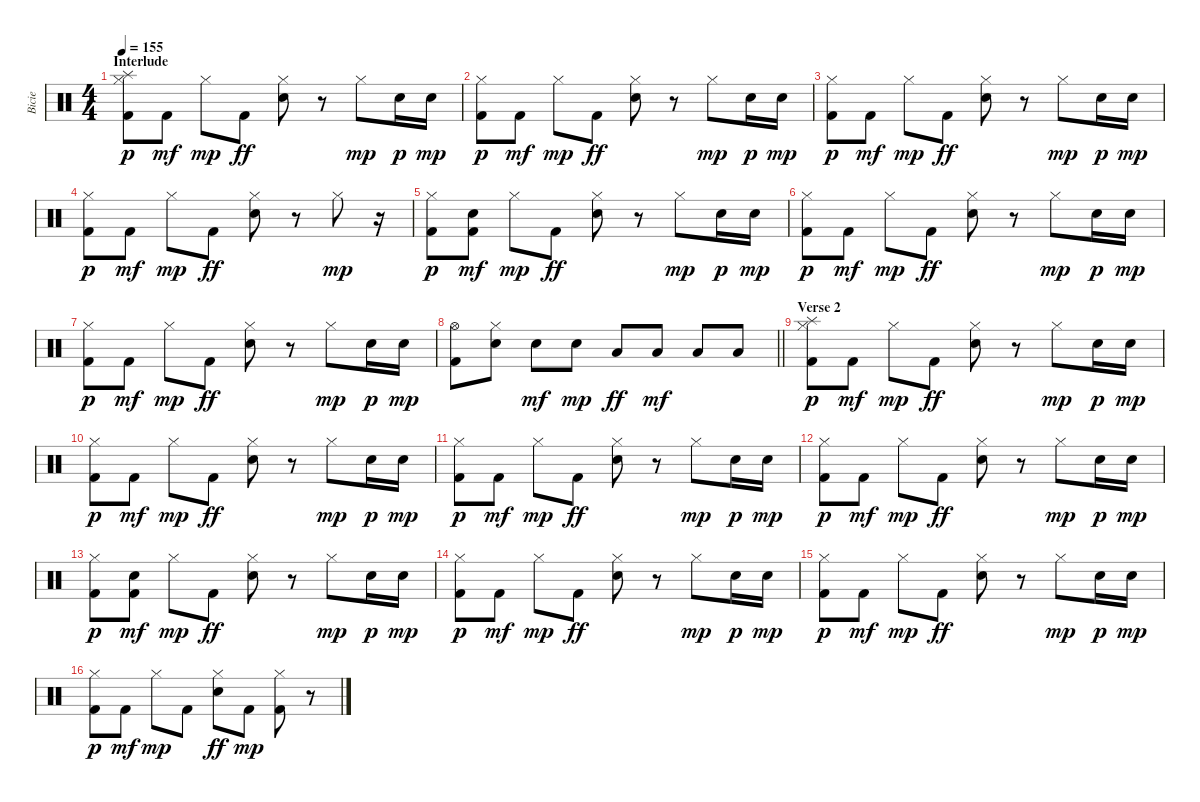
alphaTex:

\track ("Bicie" "Bicie") {instrument percussion}
\staff {score}
\articulation defaults
\ts (4 4)
\section ("" "Interlude")
\tempo 155
\clef neutral
\ks c
("Hi-Hat (closed)" "Splash (hit)" "Kick (hit) 2").8{dy p} "Kick (hit) 2".8{dy mf} "Hi-Hat (closed)".8{dy mp} "Kick (hit) 2".8{dy ff} ("Hi-Hat (closed)" "Electric Snare (hit)").8 r.8 "Hi-Hat (closed)".8{dy mp} "Electric Snare (hit)".16{dy p} "Electric Snare (hit)".16{dy mp} |
("Hi-Hat (closed)" "Kick (hit) 2").8{dy p} "Kick (hit) 2".8{dy mf} "Hi-Hat (closed)".8{dy mp} "Kick (hit) 2".8{dy ff} ("Hi-Hat (closed)" "Electric Snare (hit)").8 r.8 "Hi-Hat (closed)".8{dy mp} "Electric Snare (hit)".16{dy p} "Electric Snare (hit)".16{dy mp} |
("Hi-Hat (closed)" "Kick (hit) 2").8{dy p} "Kick (hit) 2".8{dy mf} "Hi-Hat (closed)".8{dy mp} "Kick (hit) 2".8{dy ff} ("Hi-Hat (closed)" "Electric Snare (hit)").8 r.8 "Hi-Hat (closed)".8{dy mp} "Electric Snare (hit)".16{dy p} "Electric Snare (hit)".16{dy mp} |
("Hi-Hat (closed)" "Kick (hit) 2").8{dy p} "Kick (hit) 2".8{dy mf} "Hi-Hat (closed)".8{dy mp} "Kick (hit) 2".8{dy ff} ("Hi-Hat (closed)" "Electric Snare (hit)").8 r.8 "Hi-Hat (closed)".8{dy mp} r.16 |
("Hi-Hat (closed)" "Kick (hit) 2").8{dy p} ("Electric Snare (hit)" "Kick (hit) 2").8{dy mf} "Hi-Hat (closed)".8{dy mp} "Kick (hit) 2".8{dy ff} ("Hi-Hat (closed)" "Electric Snare (hit)").8 r.8 "Hi-Hat (closed)".8{dy mp} "Electric Snare (hit)".16{dy p} "Electric Snare (hit)".16{dy mp} |
("Hi-Hat (closed)" "Kick (hit) 2").8{dy p} "Kick (hit) 2".8{dy mf} "Hi-Hat (closed)".8{dy mp} "Kick (hit) 2".8{dy ff} ("Hi-Hat (closed)" "Electric Snare (hit)").8 r.8 "Hi-Hat (closed)".8{dy mp} "Electric Snare (hit)".16{dy p} "Electric Snare (hit)".16{dy mp} |
("Hi-Hat (closed)" "Kick (hit) 2").8{dy p} "Kick (hit) 2".8{dy mf} "Hi-Hat (closed)".8{dy mp} "Kick (hit) 2".8{dy ff} ("Hi-Hat (closed)" "Electric Snare (hit)").8 r.8 "Hi-Hat (closed)".8{dy mp} "Electric Snare (hit)".16{dy p} "Electric Snare (hit)".16{dy mp} |
\barLineRight lightlight
("Hi-Hat (open)" "Kick (hit) 2").8 ("Electric Snare (hit)" "Hi-Hat (closed)").8 "Electric Snare (hit)".8{dy mf} "Electric Snare (hit)".8{dy mp} "Low Tom (hit)".8{dy ff} "Low Tom (hit)".8{dy mf} "Low Floor Tom (hit)".8 "Low Floor Tom (hit)".8 |
\section ("" "Verse 2")
("Hi-Hat (closed)" "Splash (hit)" "Kick (hit) 2").8{dy p} "Kick (hit) 2".8{dy mf} "Hi-Hat (closed)".8{dy mp} "Kick (hit) 2".8{dy ff} ("Hi-Hat (closed)" "Electric Snare (hit)").8 r.8 "Hi-Hat (closed)".8{dy mp} "Electric Snare (hit)".16{dy p} "Electric Snare (hit)".16{dy mp} |
("Hi-Hat (closed)" "Kick (hit) 2").8{dy p} "Kick (hit) 2".8{dy mf} "Hi-Hat (closed)".8{dy mp} "Kick (hit) 2".8{dy ff} ("Hi-Hat (closed)" "Electric Snare (hit)").8 r.8 "Hi-Hat (closed)".8{dy mp} "Electric Snare (hit)".16{dy p} "Electric Snare (hit)".16{dy mp} |
("Hi-Hat (closed)" "Kick (hit) 2").8{dy p} "Kick (hit) 2".8{dy mf} "Hi-Hat (closed)".8{dy mp} "Kick (hit) 2".8{dy ff} ("Hi-Hat (closed)" "Electric Snare (hit)").8 r.8 "Hi-Hat (closed)".8{dy mp} "Electric Snare (hit)".16{dy p} "Electric Snare (hit)".16{dy mp} |
("Hi-Hat (closed)" "Kick (hit) 2").8{dy p} "Kick (hit) 2".8{dy mf} "Hi-Hat (closed)".8{dy mp} "Kick (hit) 2".8{dy ff} ("Hi-Hat (closed)" "Electric Snare (hit)").8 r.8 "Hi-Hat (closed)".8{dy mp} "Electric Snare (hit)".16{dy p} "Electric Snare (hit)".16{dy mp} |
("Hi-Hat (closed)" "Kick (hit) 2").8{dy p} ("Electric Snare (hit)" "Kick (hit) 2").8{dy mf} "Hi-Hat (closed)".8{dy mp} "Kick (hit) 2".8{dy ff} ("Hi-Hat (closed)" "Electric Snare (hit)").8 r.8 "Hi-Hat (closed)".8{dy mp} "Electric Snare (hit)".16{dy p} "Electric Snare (hit)".16{dy mp} |
("Hi-Hat (closed)" "Kick (hit) 2").8{dy p} "Kick (hit) 2".8{dy mf} "Hi-Hat (closed)".8{dy mp} "Kick (hit) 2".8{dy ff} ("Hi-Hat (closed)" "Electric Snare (hit)").8 r.8 "Hi-Hat (closed)".8{dy mp} "Electric Snare (hit)".16{dy p} "Electric Snare (hit)".16{dy mp} |
("Hi-Hat (closed)" "Kick (hit) 2").8{dy p} "Kick (hit) 2".8{dy mf} "Hi-Hat (closed)".8{dy mp} "Kick (hit) 2".8{dy ff} ("Hi-Hat (closed)" "Electric Snare (hit)").8 r.8 "Hi-Hat (closed)".8{dy mp} "Electric Snare (hit)".16{dy p} "Electric Snare (hit)".16{dy mp} |
("Hi-Hat (closed)" "Kick (hit) 2").8{dy p} "Kick (hit) 2".8{dy mf} "Hi-Hat (closed)".8{dy mp} "Kick (hit) 2".8 ("Hi-Hat (closed)" "Electric Snare (hit)").8{dy ff} "Kick (hit) 2".8{dy mp} ("Hi-Hat (closed)" "Kick (hit) 2").8 r.8
